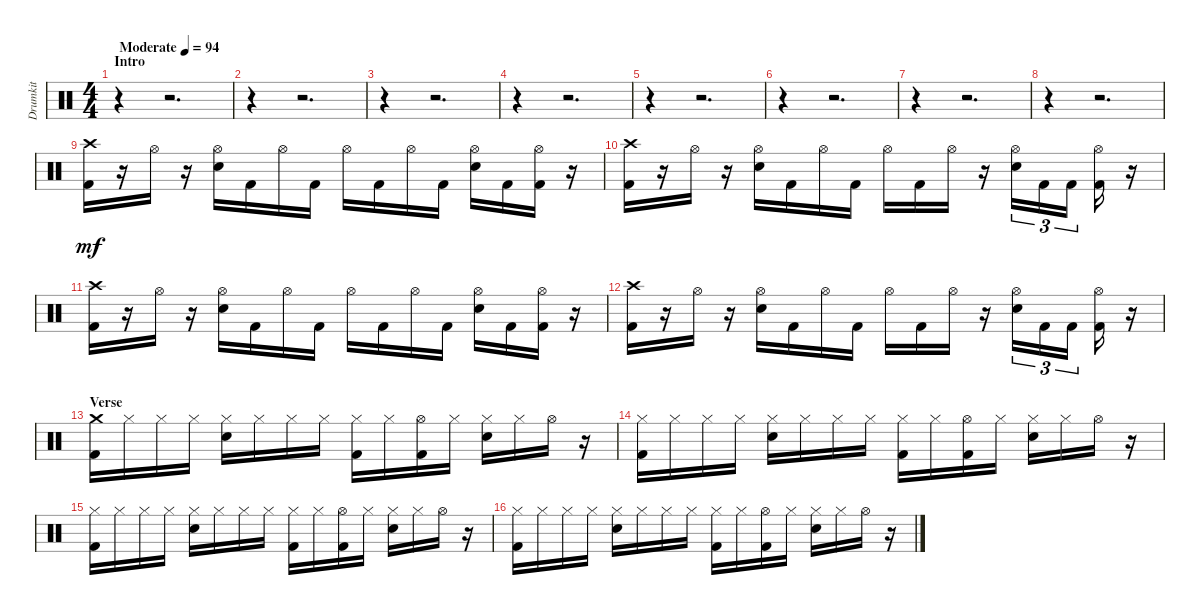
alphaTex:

\track ("Drumkit" "Drumkit") {instrument percussion}
\staff {score}
\articulation defaults
\ts (4 4)
\section ("" "Intro")
\tempo (94 "Moderate")
\clef neutral
\ks c
r.4{dy mf} r.2{d} |
r.4 r.2{d} |
r.4 r.2{d} |
r.4 r.2{d} |
r.4 r.2{d} |
r.4 r.2{d} |
r.4 r.2{d} |
r.4 r.2{d} |
("Crash high (hit)" "Kick (hit) 2").16 r.16 "Hi-Hat (open)".16 r.16 ("Hi-Hat (open)" "Snare (hit) 2").16 "Kick (hit) 2".16 "Hi-Hat (open)".16 "Kick (hit) 2".16 "Hi-Hat (open)".16 "Kick (hit) 2".16 "Hi-Hat (open)".16 "Kick (hit) 2".16 ("Hi-Hat (open)" "Snare (hit) 2").16 "Kick (hit) 2".16 ("Hi-Hat (open)" "Kick (hit) 2").16 r.16 |
("Crash high (hit)" "Kick (hit) 2").16 r.16 "Hi-Hat (open)".16 r.16 ("Hi-Hat (open)" "Snare (hit) 2").16 "Kick (hit) 2".16 "Hi-Hat (open)".16 "Kick (hit) 2".16 "Hi-Hat (open)".16 "Kick (hit) 2".16 "Hi-Hat (open)".16 r.16 ("Hi-Hat (open)" "Snare (hit) 2").16{tu (3 2)} "Kick (hit) 2".16{tu (3 2)} "Kick (hit) 2".16{tu (3 2)} ("Hi-Hat (open)" "Kick (hit) 2").16 r.16 |
("Crash high (hit)" "Kick (hit) 2").16 r.16 "Hi-Hat (open)".16 r.16 ("Hi-Hat (open)" "Snare (hit) 2").16 "Kick (hit) 2".16 "Hi-Hat (open)".16 "Kick (hit) 2".16 "Hi-Hat (open)".16 "Kick (hit) 2".16 "Hi-Hat (open)".16 "Kick (hit) 2".16 ("Hi-Hat (open)" "Snare (hit) 2").16 "Kick (hit) 2".16 ("Hi-Hat (open)" "Kick (hit) 2").16 r.16 |
("Crash high (hit)" "Kick (hit) 2").16 r.16 "Hi-Hat (open)".16 r.16 ("Hi-Hat (open)" "Snare (hit) 2").16 "Kick (hit) 2".16 "Hi-Hat (open)".16 "Kick (hit) 2".16 "Hi-Hat (open)".16 "Kick (hit) 2".16 "Hi-Hat (open)".16 r.16 ("Hi-Hat (open)" "Snare (hit) 2").16{tu (3 2)} "Kick (hit) 2".16{tu (3 2)} "Kick (hit) 2".16{tu (3 2)} ("Hi-Hat (open)" "Kick (hit) 2").16 r.16 |
\section ("" "Verse")
("Crash medium (hit)" "Kick (hit) 2").16 "Hi-Hat (closed)".16 "Hi-Hat (closed)".16 "Hi-Hat (closed)".16 ("Hi-Hat (closed)" "Snare (hit) 2").16 "Hi-Hat (closed)".16 "Hi-Hat (closed)".16 "Hi-Hat (closed)".16 ("Hi-Hat (closed)" "Kick (hit) 2").16 "Hi-Hat (closed)".16 ("Hi-Hat (open)" "Kick (hit) 2").16 "Hi-Hat (closed)".16 ("Hi-Hat (closed)" "Snare (hit) 2").16 "Hi-Hat (closed)".16 "Hi-Hat (open)".16 r.16 |
("Hi-Hat (closed)" "Kick (hit) 2").16 "Hi-Hat (closed)".16 "Hi-Hat (closed)".16 "Hi-Hat (closed)".16 ("Hi-Hat (closed)" "Snare (hit) 2").16 "Hi-Hat (closed)".16 "Hi-Hat (closed)".16 "Hi-Hat (closed)".16 ("Hi-Hat (closed)" "Kick (hit) 2").16 "Hi-Hat (closed)".16 ("Hi-Hat (open)" "Kick (hit) 2").16 "Hi-Hat (closed)".16 ("Hi-Hat (closed)" "Snare (hit) 2").16 "Hi-Hat (closed)".16 "Hi-Hat (open)".16 r.16 |
("Hi-Hat (closed)" "Kick (hit) 2").16 "Hi-Hat (closed)".16 "Hi-Hat (closed)".16 "Hi-Hat (closed)".16 ("Hi-Hat (closed)" "Snare (hit) 2").16 "Hi-Hat (closed)".16 "Hi-Hat (closed)".16 "Hi-Hat (closed)".16 ("Hi-Hat (closed)" "Kick (hit) 2").16 "Hi-Hat (closed)".16 ("Hi-Hat (open)" "Kick (hit) 2").16 "Hi-Hat (closed)".16 ("Hi-Hat (closed)" "Snare (hit) 2").16 "Hi-Hat (closed)".16 "Hi-Hat (open)".16 r.16 |
("Hi-Hat (closed)" "Kick (hit) 2").16 "Hi-Hat (closed)".16 "Hi-Hat (closed)".16 "Hi-Hat (closed)".16 ("Hi-Hat (closed)" "Snare (hit) 2").16 "Hi-Hat (closed)".16 "Hi-Hat (closed)".16 "Hi-Hat (closed)".16 ("Hi-Hat (closed)" "Kick (hit) 2").16 "Hi-Hat (closed)".16 ("Hi-Hat (open)" "Kick (hit) 2").16 "Hi-Hat (closed)".16 ("Hi-Hat (closed)" "Snare (hit) 2").16 "Hi-Hat (closed)".16 "Hi-Hat (open)".16 r.16
